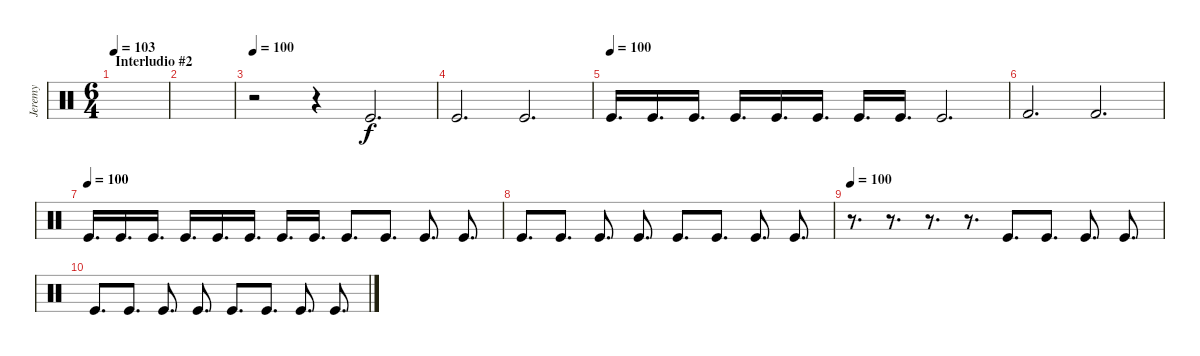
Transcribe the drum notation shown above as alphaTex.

\track ("Jeremy" "Jeremy") {instrument percussion}
\staff {score}
\articulation defaults
\ts (6 4)
\section ("" "Interludio #2")
\tempo 105
\tempo 103
\clef neutral
\ks c
|
|
\tempo 100
r.2 r.4 "Kick (hit)".2{d} |
"Kick (hit)".2{d} "Kick (hit)".2{d} |
\tempo (100)
"Kick (hit)".16{d} "Kick (hit)".16{d} "Kick (hit)".16{d} "Kick (hit)".16{d} "Kick (hit)".16{d} "Kick (hit)".16{d} "Kick (hit)".16{d} "Kick (hit)".16{d} "Kick (hit)".2{d} |
"Kick (hit) 2".2{d} "Kick (hit) 2".2{d} |
\tempo (100)
"Kick (hit)".16{d} "Kick (hit)".16{d} "Kick (hit)".16{d} "Kick (hit)".16{d} "Kick (hit)".16{d} "Kick (hit)".16{d} "Kick (hit)".16{d} "Kick (hit)".16{d} "Kick (hit)".8{d} "Kick (hit)".8{d} "Kick (hit)".8{d} "Kick (hit)".8{d} |
"Kick (hit)".8{d} "Kick (hit)".8{d} "Kick (hit)".8{d} "Kick (hit)".8{d} "Kick (hit)".8{d} "Kick (hit)".8{d} "Kick (hit)".8{d} "Kick (hit)".8{d} |
\tempo 100
r.8{d} r.8{d} r.8{d} r.8{d} "Kick (hit)".8{d} "Kick (hit)".8{d} "Kick (hit)".8{d} "Kick (hit)".8{d} |
"Kick (hit)".8{d} "Kick (hit)".8{d} "Kick (hit)".8{d} "Kick (hit)".8{d} "Kick (hit)".8{d} "Kick (hit)".8{d} "Kick (hit)".8{d} "Kick (hit)".8{d}
